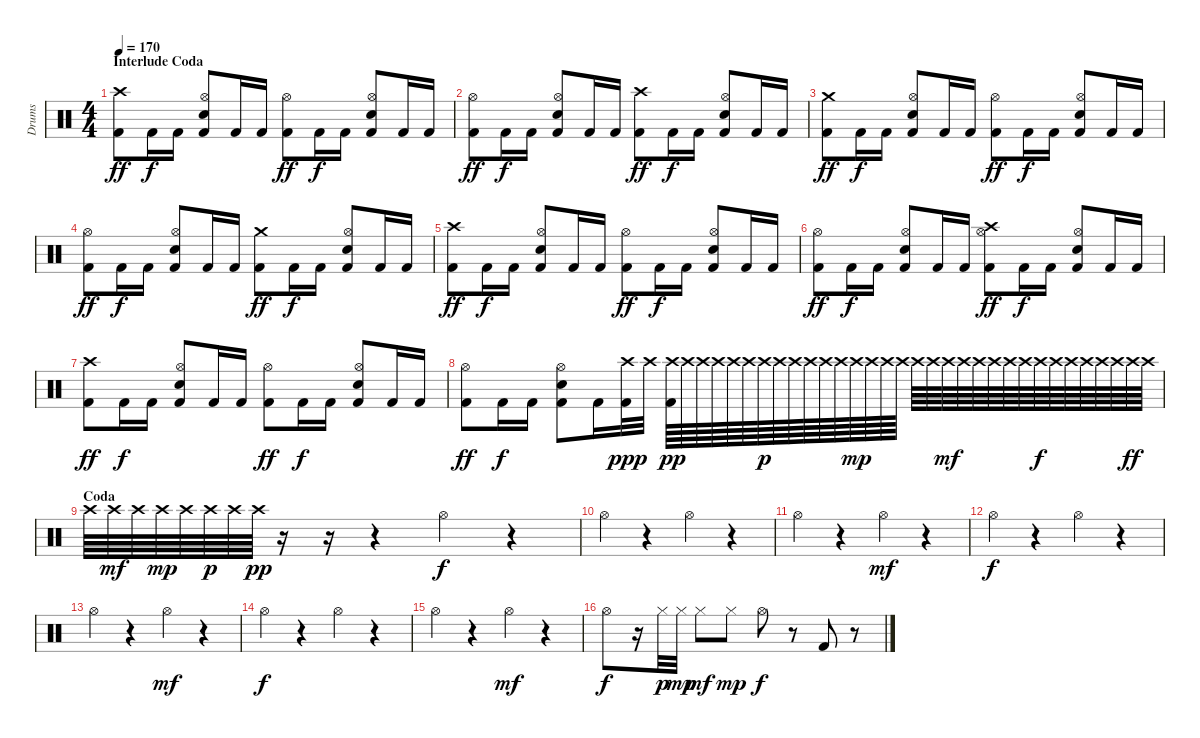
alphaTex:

\track ("Drums" "Drums") {instrument percussion}
\staff {score}
\articulation defaults
\ts (4 4)
\section ("" "Interlude Coda")
\tempo 170
\clef neutral
\ks c
("Kick (hit) 2" "Crash high (hit)").8{dy ff} "Kick (hit) 2".16{dy f} "Kick (hit) 2".16 ("Kick (hit) 2" "Hi-Hat (open)" "Electric Snare (hit)").8 "Kick (hit) 2".16 "Kick (hit) 2".16 ("Kick (hit) 2" "Hi-Hat (open)").8{dy ff} "Kick (hit) 2".16{dy f} "Kick (hit) 2".16 ("Kick (hit) 2" "Hi-Hat (open)" "Electric Snare (hit)").8 "Kick (hit) 2".16 "Kick (hit) 2".16 |
("Kick (hit) 2" "Hi-Hat (open)").8{dy ff} "Kick (hit) 2".16{dy f} "Kick (hit) 2".16 ("Kick (hit) 2" "Hi-Hat (open)" "Electric Snare (hit)").8 "Kick (hit) 2".16 "Kick (hit) 2".16 ("Kick (hit) 2" "Crash high (hit)").8{dy ff} "Kick (hit) 2".16{dy f} "Kick (hit) 2".16 ("Kick (hit) 2" "Hi-Hat (open)" "Electric Snare (hit)").8 "Kick (hit) 2".16 "Kick (hit) 2".16 |
("Kick (hit) 2" "Crash medium (hit)").8{dy ff} "Kick (hit) 2".16{dy f} "Kick (hit) 2".16 ("Kick (hit) 2" "Hi-Hat (open)" "Electric Snare (hit)").8 "Kick (hit) 2".16 "Kick (hit) 2".16 ("Kick (hit) 2" "Hi-Hat (open)").8{dy ff} "Kick (hit) 2".16{dy f} "Kick (hit) 2".16 ("Kick (hit) 2" "Hi-Hat (open)" "Electric Snare (hit)").8 "Kick (hit) 2".16 "Kick (hit) 2".16 |
("Kick (hit) 2" "Hi-Hat (open)").8{dy ff} "Kick (hit) 2".16{dy f} "Kick (hit) 2".16 ("Kick (hit) 2" "Hi-Hat (open)" "Electric Snare (hit)").8 "Kick (hit) 2".16 "Kick (hit) 2".16 ("Kick (hit) 2" "Crash medium (hit)").8{dy ff} "Kick (hit) 2".16{dy f} "Kick (hit) 2".16 ("Kick (hit) 2" "Hi-Hat (open)" "Electric Snare (hit)").8 "Kick (hit) 2".16 "Kick (hit) 2".16 |
("Kick (hit) 2" "Crash high (hit)").8{dy ff} "Kick (hit) 2".16{dy f} "Kick (hit) 2".16 ("Kick (hit) 2" "Hi-Hat (open)" "Electric Snare (hit)").8 "Kick (hit) 2".16 "Kick (hit) 2".16 ("Kick (hit) 2" "Hi-Hat (open)").8{dy ff} "Kick (hit) 2".16{dy f} "Kick (hit) 2".16 ("Kick (hit) 2" "Hi-Hat (open)" "Electric Snare (hit)").8 "Kick (hit) 2".16 "Kick (hit) 2".16 |
("Kick (hit) 2" "Hi-Hat (open)").8{dy ff} "Kick (hit) 2".16{dy f} "Kick (hit) 2".16 ("Kick (hit) 2" "Hi-Hat (open)" "Electric Snare (hit)").8 "Kick (hit) 2".16 "Kick (hit) 2".16 ("Kick (hit) 2" "Hi-Hat (open)" "Crash high (hit)").8{dy ff} "Kick (hit) 2".16{dy f} "Kick (hit) 2".16 ("Kick (hit) 2" "Hi-Hat (open)" "Electric Snare (hit)").8 "Kick (hit) 2".16 "Kick (hit) 2".16 |
("Kick (hit) 2" "Crash high (hit)").8{dy ff} "Kick (hit) 2".16{dy f} "Kick (hit) 2".16 ("Kick (hit) 2" "Hi-Hat (open)" "Electric Snare (hit)").8 "Kick (hit) 2".16 "Kick (hit) 2".16 ("Kick (hit) 2" "Hi-Hat (open)").8{dy ff} "Kick (hit) 2".16{dy f} "Kick (hit) 2".16 ("Kick (hit) 2" "Hi-Hat (open)" "Electric Snare (hit)").8 "Kick (hit) 2".16 "Kick (hit) 2".16 |
("Kick (hit) 2" "Hi-Hat (open)").8{dy ff} "Kick (hit) 2".16{dy f} "Kick (hit) 2".16 ("Kick (hit) 2" "Hi-Hat (open)" "Electric Snare (hit)").8 "Kick (hit) 2".16 ("Kick (hit) 2" "Crash high (hit)").32{dy ppp} "Crash high (hit)".32 ("Kick (hit) 2" "Crash high (hit)").64{dy pp} "Crash high (hit)".64 "Crash high (hit)".64 "Crash high (hit)".64 "Crash high (hit)".64 "Crash high (hit)".64 "Crash high (hit)".64{dy p} "Crash high (hit)".64 "Crash high (hit)".64 "Crash high (hit)".64 "Crash high (hit)".64 "Crash high (hit)".64 "Crash high (hit)".64{dy mp} "Crash high (hit)".64 "Crash high (hit)".64 "Crash high (hit)".64 "Crash high (hit)".64 "Crash high (hit)".64 "Crash high (hit)".64{dy mf} "Crash high (hit)".64 "Crash high (hit)".64 "Crash high (hit)".64 "Crash high (hit)".64 "Crash high (hit)".64 "Crash high (hit)".64{dy f} "Crash high (hit)".64 "Crash high (hit)".64 "Crash high (hit)".64 "Crash high (hit)".64 "Crash high (hit)".64 "Crash high (hit)".64{dy ff} "Crash high (hit)".64 |
\section ("" "Coda")
"Crash high (hit)".64 "Crash high (hit)".64{dy mf} "Crash high (hit)".64 "Crash high (hit)".64{dy mp} "Crash high (hit)".64 "Crash high (hit)".64{dy p} "Crash high (hit)".64 "Crash high (hit)".64{dy pp} r.16 r.16 r.4 "Hi-Hat (open)".4{dy f} r.4 |
"Hi-Hat (open)".4 r.4 "Hi-Hat (open)".4 r.4 |
"Hi-Hat (open)".4 r.4 "Hi-Hat (open)".4{dy mf} r.4 |
"Hi-Hat (open)".4{dy f} r.4 "Hi-Hat (open)".4 r.4 |
"Hi-Hat (open)".4 r.4 "Hi-Hat (open)".4{dy mf} r.4 |
"Hi-Hat (open)".4{dy f} r.4 "Hi-Hat (open)".4 r.4 |
"Hi-Hat (open)".4 r.4 "Hi-Hat (open)".4{dy mf} r.4 |
"Hi-Hat (open)".8{dy f} r.16 "Hi-Hat (closed)".32{dy p} "Hi-Hat (closed)".32{dy mp} "Hi-Hat (closed)".8{dy mf} "Hi-Hat (closed)".8{dy mp} "Hi-Hat (open)".8{dy f} r.8 "Kick (hit) 2".8 r.8
